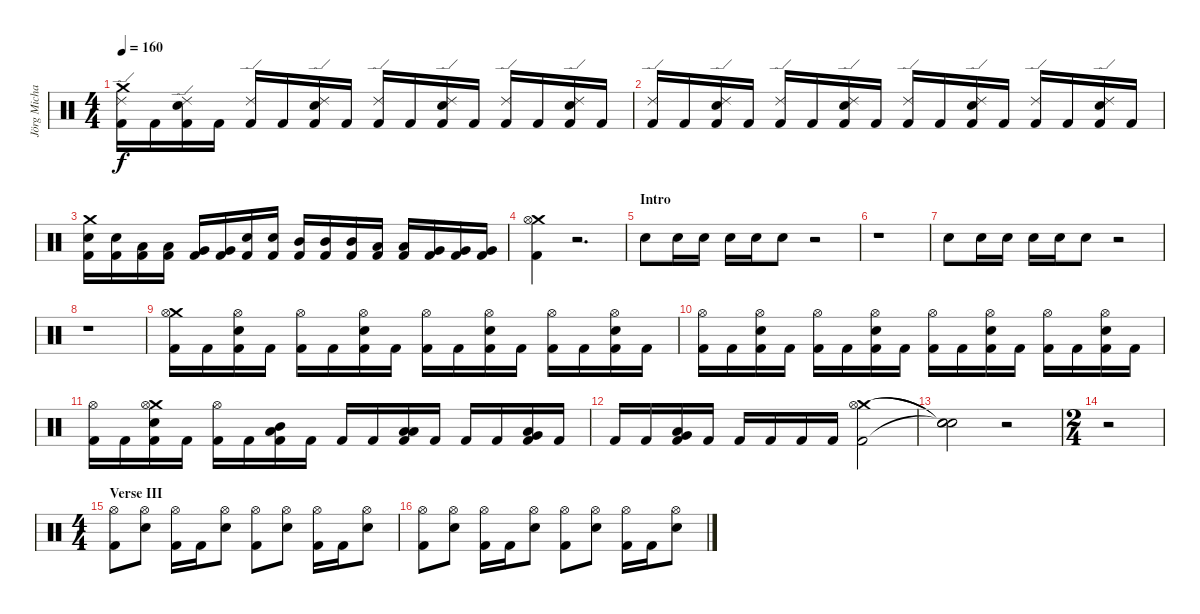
\track ("Jörg Michael" "Jörg Micha") {instrument percussion}
\staff {score}
\articulation defaults
\ts (4 4)
\tempo 160
\clef neutral
\ks c
("Crash medium (hit)" "Ride (edge) 2" "Kick (hit) 2").16{dy f} "Kick (hit) 2".16 ("Electric Snare (hit)" "Ride (edge) 2" "Kick (hit) 2").16 "Kick (hit) 2".16 ("Ride (edge) 2" "Kick (hit) 2").16 "Kick (hit) 2".16 ("Electric Snare (hit)" "Ride (edge) 2" "Kick (hit) 2").16 "Kick (hit) 2".16 ("Ride (edge) 2" "Kick (hit) 2").16 "Kick (hit) 2".16 ("Electric Snare (hit)" "Ride (edge) 2" "Kick (hit) 2").16 "Kick (hit) 2".16 ("Ride (edge) 2" "Kick (hit) 2").16 "Kick (hit) 2".16 ("Electric Snare (hit)" "Ride (edge) 2" "Kick (hit) 2").16 "Kick (hit) 2".16 |
("Ride (edge) 2" "Kick (hit) 2").16 "Kick (hit) 2".16 ("Electric Snare (hit)" "Ride (edge) 2" "Kick (hit) 2").16 "Kick (hit) 2".16 ("Ride (edge) 2" "Kick (hit) 2").16 "Kick (hit) 2".16 ("Electric Snare (hit)" "Ride (edge) 2" "Kick (hit) 2").16 "Kick (hit) 2".16 ("Ride (edge) 2" "Kick (hit) 2").16 "Kick (hit) 2".16 ("Electric Snare (hit)" "Ride (edge) 2" "Kick (hit) 2").16 "Kick (hit) 2".16 ("Ride (edge) 2" "Kick (hit) 2").16 "Kick (hit) 2".16 ("Electric Snare (hit)" "Ride (edge) 2" "Kick (hit) 2").16 "Kick (hit) 2".16 |
("Crash medium (hit)" "Electric Snare (hit)" "Kick (hit) 2").16 ("Electric Snare (hit)" "Kick (hit) 2").16 ("Low Tom (hit)" "Kick (hit) 2").16 ("Low Tom (hit)" "Kick (hit) 2").16 ("Very Low Tom (hit)" "Kick (hit) 2").16 ("Very Low Tom (hit)" "Kick (hit) 2").16 ("Electric Snare (hit)" "Kick (hit) 2").16 ("Electric Snare (hit)" "Kick (hit) 2").16 ("Mid Tom (hit)" "Kick (hit) 2").16 ("Mid Tom (hit)" "Kick (hit) 2").16 ("Mid Tom (hit)" "Kick (hit) 2").16 ("Low Tom (hit)" "Kick (hit) 2").16 ("Low Tom (hit)" "Kick (hit) 2").16 ("Very Low Tom (hit)" "Kick (hit) 2").16 ("Very Low Tom (hit)" "Kick (hit) 2").16 ("Very Low Tom (hit)" "Kick (hit) 2").16 |
("Crash medium (hit)" "Hi-Hat (open)" "Kick (hit) 2").4 r.2{d} |
\section ("" "Intro")
"Electric Snare (hit)".8{volume 10} "Electric Snare (hit)".16 "Electric Snare (hit)".16 "Electric Snare (hit)".16 "Electric Snare (hit)".16 "Electric Snare (hit)".8 r.2 |
r.1 |
"Electric Snare (hit)".8{volume 10} "Electric Snare (hit)".16 "Electric Snare (hit)".16 "Electric Snare (hit)".16 "Electric Snare (hit)".16 "Electric Snare (hit)".8 r.2 |
r.1 |
("Crash medium (hit)" "Hi-Hat (open)" "Kick (hit) 2").16 "Kick (hit) 2".16 ("Electric Snare (hit)" "Hi-Hat (open)" "Kick (hit) 2").16 "Kick (hit) 2".16 ("Hi-Hat (open)" "Kick (hit) 2").16 "Kick (hit) 2".16 ("Electric Snare (hit)" "Hi-Hat (open)" "Kick (hit) 2").16 "Kick (hit) 2".16 ("Hi-Hat (open)" "Kick (hit) 2").16 "Kick (hit) 2".16 ("Electric Snare (hit)" "Hi-Hat (open)" "Kick (hit) 2").16 "Kick (hit) 2".16 ("Hi-Hat (open)" "Kick (hit) 2").16 "Kick (hit) 2".16 ("Electric Snare (hit)" "Hi-Hat (open)" "Kick (hit) 2").16 "Kick (hit) 2".16 |
("Hi-Hat (open)" "Kick (hit) 2").16 "Kick (hit) 2".16 ("Electric Snare (hit)" "Hi-Hat (open)" "Kick (hit) 2").16 "Kick (hit) 2".16 ("Hi-Hat (open)" "Kick (hit) 2").16 "Kick (hit) 2".16 ("Electric Snare (hit)" "Hi-Hat (open)" "Kick (hit) 2").16 "Kick (hit) 2".16 ("Hi-Hat (open)" "Kick (hit) 2").16 "Kick (hit) 2".16 ("Electric Snare (hit)" "Hi-Hat (open)" "Kick (hit) 2").16 "Kick (hit) 2".16 ("Hi-Hat (open)" "Kick (hit) 2").16 "Kick (hit) 2".16 ("Electric Snare (hit)" "Hi-Hat (open)" "Kick (hit) 2").16 "Kick (hit) 2".16 |
("Hi-Hat (open)" "Kick (hit) 2").16 "Kick (hit) 2".16 ("Crash medium (hit)" "Electric Snare (hit)" "Hi-Hat (open)" "Kick (hit) 2").16 "Kick (hit) 2".16 ("Hi-Hat (open)" "Kick (hit) 2").16 "Kick (hit) 2".16 ("Mid Tom (hit)" "Low Floor Tom (hit)" "Kick (hit) 2").16 "Kick (hit) 2".16 "Kick (hit) 2".16 "Kick (hit) 2".16 ("Low Tom (hit)" "Low Floor Tom (hit)" "Kick (hit) 2").16 "Kick (hit) 2".16 "Kick (hit) 2".16 "Kick (hit) 2".16 ("Very Low Tom (hit)" "Low Floor Tom (hit)" "Kick (hit) 2").16 "Kick (hit) 2".16 |
"Kick (hit) 2".16 "Kick (hit) 2".16 ("Low Floor Tom (hit)" "Very Low Tom (hit)" "Kick (hit) 2").16 "Kick (hit) 2".16 "Kick (hit) 2".16 "Kick (hit) 2".16 "Kick (hit) 2".16 "Kick (hit) 2".16 ("Crash medium (hit)" "Hi-Hat (open)" "Kick (hit) 2").2 |
("Snare (hit)"{t} "Snare (hit)"{t} "Snare (hit)"{t}).2 r.2 |
\ts (2 4)
r.2 |
\ts (4 4)
\section ("" "Verse III")
("Hi-Hat (open)" "Kick (hit) 2").8 ("Hi-Hat (open)" "Electric Snare (hit)").8 ("Hi-Hat (open)" "Kick (hit) 2").16 "Kick (hit) 2".16 ("Hi-Hat (open)" "Electric Snare (hit)").8 ("Hi-Hat (open)" "Kick (hit) 2").8 ("Hi-Hat (open)" "Electric Snare (hit)").8 ("Hi-Hat (open)" "Kick (hit) 2").16 "Kick (hit) 2".16 ("Hi-Hat (open)" "Electric Snare (hit)").8 |
("Hi-Hat (open)" "Kick (hit) 2").8 ("Hi-Hat (open)" "Electric Snare (hit)").8 ("Hi-Hat (open)" "Kick (hit) 2").16 "Kick (hit) 2".16 ("Hi-Hat (open)" "Electric Snare (hit)").8 ("Hi-Hat (open)" "Kick (hit) 2").8 ("Hi-Hat (open)" "Electric Snare (hit)").8 ("Hi-Hat (open)" "Kick (hit) 2").16 "Kick (hit) 2".16 ("Hi-Hat (open)" "Electric Snare (hit)").8
